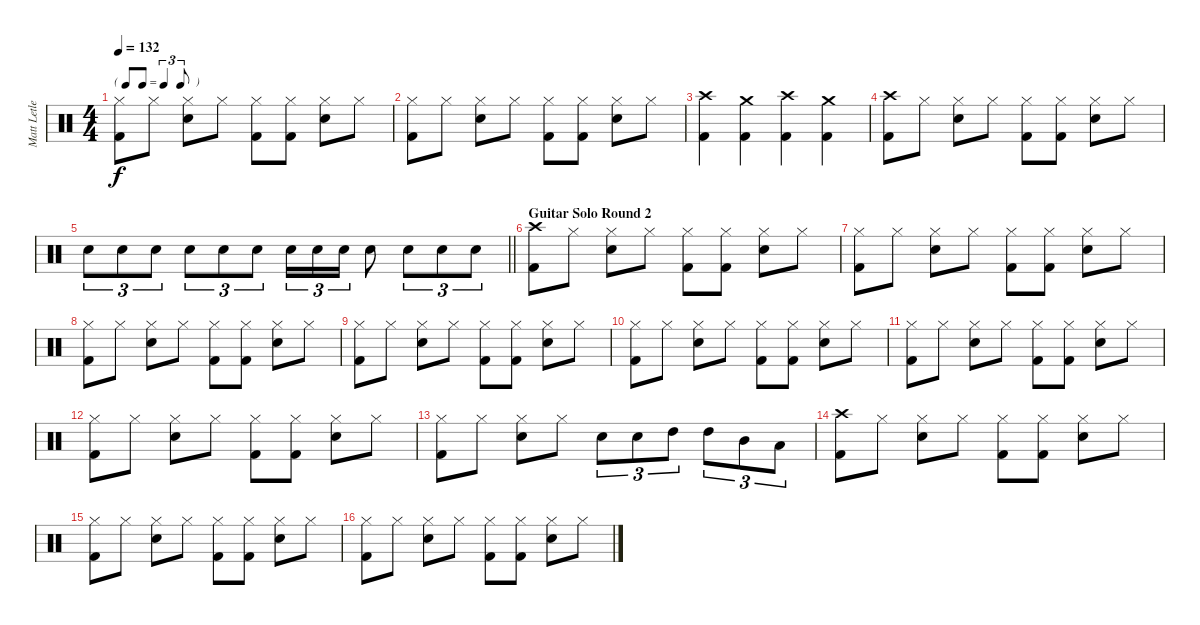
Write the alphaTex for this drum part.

\track ("Matt Letley" "Matt Letle") {instrument percussion}
\staff {score}
\articulation defaults
\ts (4 4)
\tf triplet8th
\tempo 132
\clef neutral
\ks c
("Hi-Hat (closed)" "Kick (hit) 2").8{dy f} "Hi-Hat (closed)".8 ("Hi-Hat (closed)" "Electric Snare (hit)").8 "Hi-Hat (closed)".8 ("Hi-Hat (closed)" "Kick (hit) 2").8 ("Hi-Hat (closed)" "Kick (hit) 2").8 ("Hi-Hat (closed)" "Electric Snare (hit)").8 "Hi-Hat (closed)".8 |
("Hi-Hat (closed)" "Kick (hit) 2").8 "Hi-Hat (closed)".8 ("Hi-Hat (closed)" "Electric Snare (hit)").8 "Hi-Hat (closed)".8 ("Hi-Hat (closed)" "Kick (hit) 2").8 ("Hi-Hat (closed)" "Kick (hit) 2").8 ("Hi-Hat (closed)" "Electric Snare (hit)").8 "Hi-Hat (closed)".8 |
("Crash high (hit)" "Kick (hit) 2").4 ("Crash medium (hit)" "Kick (hit) 2").4 ("Crash high (hit)" "Kick (hit) 2").4 ("Crash medium (hit)" "Kick (hit) 2").4 |
("Crash high (hit)" "Kick (hit) 2").8 "Hi-Hat (closed)".8 ("Hi-Hat (closed)" "Electric Snare (hit)").8 "Hi-Hat (closed)".8 ("Hi-Hat (closed)" "Kick (hit) 2").8 ("Hi-Hat (closed)" "Kick (hit) 2").8 ("Hi-Hat (closed)" "Electric Snare (hit)").8 "Hi-Hat (closed)".8 |
\barLineRight lightlight "Electric Snare (hit)".8{tu (3 2)} "Electric Snare (hit)".8{tu (3 2)} "Electric Snare (hit)".8{tu (3 2)} "Electric Snare (hit)".8{tu (3 2)} "Electric Snare (hit)".8{tu (3 2)} "Electric Snare (hit)".8{tu (3 2)} "Electric Snare (hit)".16{tu (3 2)} "Electric Snare (hit)".16{tu (3 2)} "Electric Snare (hit)".16{tu (3 2)} "Electric Snare (hit)".8 "Electric Snare (hit)".8{tu (3 2)} "Electric Snare (hit)".8{tu (3 2)} "Electric Snare (hit)".8{tu (3 2)}
|
\section ("" "Guitar Solo Round 2")
("Crash high (hit)" "Kick (hit) 2").8 "Hi-Hat (closed)".8 ("Hi-Hat (closed)" "Electric Snare (hit)").8 "Hi-Hat (closed)".8 ("Hi-Hat (closed)" "Kick (hit) 2").8 ("Hi-Hat (closed)" "Kick (hit) 2").8 ("Hi-Hat (closed)" "Electric Snare (hit)").8 "Hi-Hat (closed)".8 |
("Hi-Hat (closed)" "Kick (hit) 2").8 "Hi-Hat (closed)".8 ("Hi-Hat (closed)" "Electric Snare (hit)").8 "Hi-Hat (closed)".8 ("Hi-Hat (closed)" "Kick (hit) 2").8 ("Hi-Hat (closed)" "Kick (hit) 2").8 ("Hi-Hat (closed)" "Electric Snare (hit)").8 "Hi-Hat (closed)".8 |
("Hi-Hat (closed)" "Kick (hit) 2").8 "Hi-Hat (closed)".8 ("Hi-Hat (closed)" "Electric Snare (hit)").8 "Hi-Hat (closed)".8 ("Hi-Hat (closed)" "Kick (hit) 2").8 ("Hi-Hat (closed)" "Kick (hit) 2").8 ("Hi-Hat (closed)" "Electric Snare (hit)").8 "Hi-Hat (closed)".8 |
("Hi-Hat (closed)" "Kick (hit) 2").8 "Hi-Hat (closed)".8 ("Hi-Hat (closed)" "Electric Snare (hit)").8 "Hi-Hat (closed)".8 ("Hi-Hat (closed)" "Kick (hit) 2").8 ("Hi-Hat (closed)" "Kick (hit) 2").8 ("Hi-Hat (closed)" "Electric Snare (hit)").8 "Hi-Hat (closed)".8 |
("Hi-Hat (closed)" "Kick (hit) 2").8 "Hi-Hat (closed)".8 ("Hi-Hat (closed)" "Electric Snare (hit)").8 "Hi-Hat (closed)".8 ("Hi-Hat (closed)" "Kick (hit) 2").8 ("Hi-Hat (closed)" "Kick (hit) 2").8 ("Hi-Hat (closed)" "Electric Snare (hit)").8 "Hi-Hat (closed)".8 |
("Hi-Hat (closed)" "Kick (hit) 2").8 "Hi-Hat (closed)".8 ("Hi-Hat (closed)" "Electric Snare (hit)").8 "Hi-Hat (closed)".8 ("Hi-Hat (closed)" "Kick (hit) 2").8 ("Hi-Hat (closed)" "Kick (hit) 2").8 ("Hi-Hat (closed)" "Electric Snare (hit)").8 "Hi-Hat (closed)".8 |
("Hi-Hat (closed)" "Kick (hit) 2").8 "Hi-Hat (closed)".8 ("Hi-Hat (closed)" "Electric Snare (hit)").8 "Hi-Hat (closed)".8 ("Hi-Hat (closed)" "Kick (hit) 2").8 ("Hi-Hat (closed)" "Kick (hit) 2").8 ("Hi-Hat (closed)" "Electric Snare (hit)").8 "Hi-Hat (closed)".8 |
("Hi-Hat (closed)" "Kick (hit) 2").8 "Hi-Hat (closed)".8 ("Hi-Hat (closed)" "Electric Snare (hit)").8 "Hi-Hat (closed)".8 "Electric Snare (hit)".8{tu (3 2)} "Electric Snare (hit)".8{tu (3 2)} "High Tom (hit)".8{tu (3 2)} "High Tom (hit)".8{tu (3 2)} "Mid Tom (hit)".8{tu (3 2)} "Low Tom (hit)".8{tu (3 2)} |
("Crash high (hit)" "Kick (hit) 2").8 "Hi-Hat (closed)".8 ("Hi-Hat (closed)" "Electric Snare (hit)").8 "Hi-Hat (closed)".8 ("Hi-Hat (closed)" "Kick (hit) 2").8 ("Hi-Hat (closed)" "Kick (hit) 2").8 ("Hi-Hat (closed)" "Electric Snare (hit)").8 "Hi-Hat (closed)".8 |
("Hi-Hat (closed)" "Kick (hit) 2").8 "Hi-Hat (closed)".8 ("Hi-Hat (closed)" "Electric Snare (hit)").8 "Hi-Hat (closed)".8 ("Hi-Hat (closed)" "Kick (hit) 2").8 ("Hi-Hat (closed)" "Kick (hit) 2").8 ("Hi-Hat (closed)" "Electric Snare (hit)").8 "Hi-Hat (closed)".8 |
("Hi-Hat (closed)" "Kick (hit) 2").8 "Hi-Hat (closed)".8 ("Hi-Hat (closed)" "Electric Snare (hit)").8 "Hi-Hat (closed)".8 ("Hi-Hat (closed)" "Kick (hit) 2").8 ("Hi-Hat (closed)" "Kick (hit) 2").8 ("Hi-Hat (closed)" "Electric Snare (hit)").8 "Hi-Hat (closed)".8
